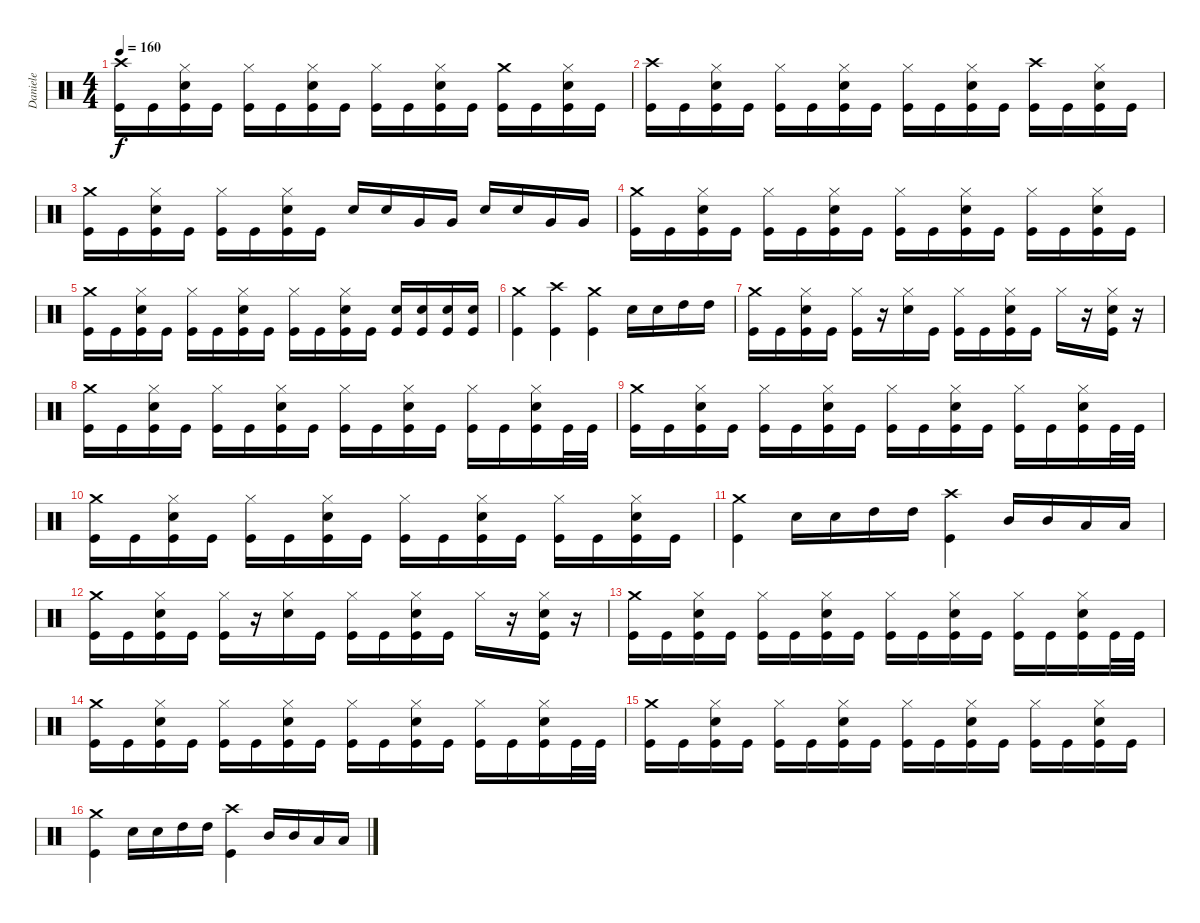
\track ("Daniele" "Daniele") {instrument percussion}
\staff {score}
\articulation defaults
\ts (4 4)
\tempo 160
\clef neutral
\ks c
("Kick (hit)" "Crash high (hit)").16{dy f} "Kick (hit)".16 ("Kick (hit)" "Electric Snare (hit)" "Hi-Hat (closed)").16 "Kick (hit)".16 ("Kick (hit)" "Hi-Hat (closed)").16 "Kick (hit)".16 ("Kick (hit)" "Electric Snare (hit)" "Hi-Hat (closed)").16 "Kick (hit)".16 ("Kick (hit)" "Hi-Hat (closed)").16 "Kick (hit)".16 ("Kick (hit)" "Electric Snare (hit)" "Hi-Hat (closed)").16 "Kick (hit)".16 ("Kick (hit)" "Crash medium (hit)").16 "Kick (hit)".16 ("Kick (hit)" "Electric Snare (hit)" "Hi-Hat (closed)").16 "Kick (hit)".16 |
("Kick (hit)" "Crash high (hit)").16 "Kick (hit)".16 ("Kick (hit)" "Electric Snare (hit)" "Hi-Hat (closed)").16 "Kick (hit)".16 ("Kick (hit)" "Hi-Hat (closed)").16 "Kick (hit)".16 ("Kick (hit)" "Electric Snare (hit)" "Hi-Hat (closed)").16 "Kick (hit)".16 ("Kick (hit)" "Hi-Hat (closed)").16 "Kick (hit)".16 ("Kick (hit)" "Electric Snare (hit)" "Hi-Hat (closed)").16 "Kick (hit)".16 ("Kick (hit)" "Crash high (hit)").16 "Kick (hit)".16 ("Kick (hit)" "Electric Snare (hit)" "Hi-Hat (closed)").16 "Kick (hit)".16 |
("Kick (hit)" "Crash medium (hit)").16 "Kick (hit)".16 ("Kick (hit)" "Electric Snare (hit)" "Hi-Hat (closed)").16 "Kick (hit)".16 ("Kick (hit)" "Hi-Hat (closed)").16 "Kick (hit)".16 ("Kick (hit)" "Electric Snare (hit)" "Hi-Hat (closed)").16 "Kick (hit)".16 "Electric Snare (hit)".16 "Electric Snare (hit)".16 "Very Low Tom (hit)".16 "Very Low Tom (hit)".16 "Electric Snare (hit)".16 "Electric Snare (hit)".16 "Very Low Tom (hit)".16 "Very Low Tom (hit)".16 |
("Kick (hit)" "Crash medium (hit)").16 "Kick (hit)".16 ("Kick (hit)" "Electric Snare (hit)" "Hi-Hat (closed)").16 "Kick (hit)".16 ("Kick (hit)" "Hi-Hat (closed)").16 "Kick (hit)".16 ("Kick (hit)" "Electric Snare (hit)" "Hi-Hat (closed)").16 "Kick (hit)".16 ("Kick (hit)" "Hi-Hat (closed)").16 "Kick (hit)".16 ("Kick (hit)" "Electric Snare (hit)" "Hi-Hat (closed)").16 "Kick (hit)".16 ("Kick (hit)" "Hi-Hat (closed)").16 "Kick (hit)".16 ("Kick (hit)" "Electric Snare (hit)" "Hi-Hat (closed)").16 "Kick (hit)".16 |
("Kick (hit)" "Crash medium (hit)").16 "Kick (hit)".16 ("Kick (hit)" "Electric Snare (hit)" "Hi-Hat (closed)").16 "Kick (hit)".16 ("Kick (hit)" "Hi-Hat (closed)").16 "Kick (hit)".16 ("Kick (hit)" "Electric Snare (hit)" "Hi-Hat (closed)").16 "Kick (hit)".16 ("Kick (hit)" "Hi-Hat (closed)").16 "Kick (hit)".16 ("Kick (hit)" "Electric Snare (hit)" "Hi-Hat (closed)").16 "Kick (hit)".16 ("Kick (hit)" "Electric Snare (hit)").16 ("Kick (hit)" "Electric Snare (hit)").16 ("Kick (hit)" "Electric Snare (hit)").16 ("Kick (hit)" "Electric Snare (hit)").16 |
("Kick (hit)" "Crash medium (hit)").4 ("Kick (hit)" "Crash high (hit)").4 ("Kick (hit)" "Crash medium (hit)").4 "Electric Snare (hit)".16 "Electric Snare (hit)".16 "High Tom (hit)".16 "High Tom (hit)".16 |
("Kick (hit)" "Crash medium (hit)").16 "Kick (hit)".16 ("Kick (hit)" "Electric Snare (hit)" "Hi-Hat (closed)").16 "Kick (hit)".16 ("Kick (hit)" "Hi-Hat (closed)").16 r.16 ("Electric Snare (hit)" "Hi-Hat (closed)").16 "Kick (hit)".16 ("Kick (hit)" "Hi-Hat (closed)").16 "Kick (hit)".16 ("Kick (hit)" "Electric Snare (hit)" "Hi-Hat (closed)").16 "Kick (hit)".16 "Hi-Hat (closed)".16 r.16 ("Kick (hit)" "Electric Snare (hit)" "Hi-Hat (closed)").16 r.16 |
("Kick (hit)" "Crash medium (hit)").16 "Kick (hit)".16 ("Kick (hit)" "Electric Snare (hit)" "Hi-Hat (closed)").16 "Kick (hit)".16 ("Kick (hit)" "Hi-Hat (closed)").16 "Kick (hit)".16 ("Kick (hit)" "Electric Snare (hit)" "Hi-Hat (closed)").16 "Kick (hit)".16 ("Kick (hit)" "Hi-Hat (closed)").16 "Kick (hit)".16 ("Kick (hit)" "Electric Snare (hit)" "Hi-Hat (closed)").16 "Kick (hit)".16 ("Kick (hit)" "Hi-Hat (closed)").16 "Kick (hit)".16 ("Kick (hit)" "Electric Snare (hit)" "Hi-Hat (closed)").16 "Kick (hit)".32 "Kick (hit)".32 |
("Kick (hit)" "Crash medium (hit)").16 "Kick (hit)".16 ("Kick (hit)" "Electric Snare (hit)" "Hi-Hat (closed)").16 "Kick (hit)".16 ("Kick (hit)" "Hi-Hat (closed)").16 "Kick (hit)".16 ("Kick (hit)" "Electric Snare (hit)" "Hi-Hat (closed)").16 "Kick (hit)".16 ("Kick (hit)" "Hi-Hat (closed)").16 "Kick (hit)".16 ("Kick (hit)" "Electric Snare (hit)" "Hi-Hat (closed)").16 "Kick (hit)".16 ("Kick (hit)" "Hi-Hat (closed)").16 "Kick (hit)".16 ("Kick (hit)" "Electric Snare (hit)" "Hi-Hat (closed)").16 "Kick (hit)".32 "Kick (hit)".32 |
("Kick (hit)" "Crash medium (hit)").16 "Kick (hit)".16 ("Kick (hit)" "Electric Snare (hit)" "Hi-Hat (closed)").16 "Kick (hit)".16 ("Kick (hit)" "Hi-Hat (closed)").16 "Kick (hit)".16 ("Kick (hit)" "Electric Snare (hit)" "Hi-Hat (closed)").16 "Kick (hit)".16 ("Kick (hit)" "Hi-Hat (closed)").16 "Kick (hit)".16 ("Kick (hit)" "Electric Snare (hit)" "Hi-Hat (closed)").16 "Kick (hit)".16 ("Kick (hit)" "Hi-Hat (closed)").16 "Kick (hit)".16 ("Kick (hit)" "Electric Snare (hit)" "Hi-Hat (closed)").16 "Kick (hit)".16 |
("Kick (hit)" "Crash medium (hit)").4 "Electric Snare (hit)".16 "Electric Snare (hit)".16 "High Tom (hit)".16 "High Tom (hit)".16 ("Kick (hit)" "Crash high (hit)").4 "Mid Tom (hit)".16 "Mid Tom (hit)".16 "Low Tom (hit)".16 "Low Tom (hit)".16 |
("Kick (hit)" "Crash medium (hit)").16 "Kick (hit)".16 ("Kick (hit)" "Electric Snare (hit)" "Hi-Hat (closed)").16 "Kick (hit)".16 ("Kick (hit)" "Hi-Hat (closed)").16 r.16 ("Electric Snare (hit)" "Hi-Hat (closed)").16 "Kick (hit)".16 ("Kick (hit)" "Hi-Hat (closed)").16 "Kick (hit)".16 ("Kick (hit)" "Electric Snare (hit)" "Hi-Hat (closed)").16 "Kick (hit)".16 "Hi-Hat (closed)".16 r.16 ("Kick (hit)" "Electric Snare (hit)" "Hi-Hat (closed)").16 r.16 |
("Kick (hit)" "Crash medium (hit)").16 "Kick (hit)".16 ("Kick (hit)" "Electric Snare (hit)" "Hi-Hat (closed)").16 "Kick (hit)".16 ("Kick (hit)" "Hi-Hat (closed)").16 "Kick (hit)".16 ("Kick (hit)" "Electric Snare (hit)" "Hi-Hat (closed)").16 "Kick (hit)".16 ("Kick (hit)" "Hi-Hat (closed)").16 "Kick (hit)".16 ("Kick (hit)" "Electric Snare (hit)" "Hi-Hat (closed)").16 "Kick (hit)".16 ("Kick (hit)" "Hi-Hat (closed)").16 "Kick (hit)".16 ("Kick (hit)" "Electric Snare (hit)" "Hi-Hat (closed)").16 "Kick (hit)".32 "Kick (hit)".32 |
("Kick (hit)" "Crash medium (hit)").16 "Kick (hit)".16 ("Kick (hit)" "Electric Snare (hit)" "Hi-Hat (closed)").16 "Kick (hit)".16 ("Kick (hit)" "Hi-Hat (closed)").16 "Kick (hit)".16 ("Kick (hit)" "Electric Snare (hit)" "Hi-Hat (closed)").16 "Kick (hit)".16 ("Kick (hit)" "Hi-Hat (closed)").16 "Kick (hit)".16 ("Kick (hit)" "Electric Snare (hit)" "Hi-Hat (closed)").16 "Kick (hit)".16 ("Kick (hit)" "Hi-Hat (closed)").16 "Kick (hit)".16 ("Kick (hit)" "Electric Snare (hit)" "Hi-Hat (closed)").16 "Kick (hit)".32 "Kick (hit)".32 |
("Kick (hit)" "Crash medium (hit)").16 "Kick (hit)".16 ("Kick (hit)" "Electric Snare (hit)" "Hi-Hat (closed)").16 "Kick (hit)".16 ("Kick (hit)" "Hi-Hat (closed)").16 "Kick (hit)".16 ("Kick (hit)" "Electric Snare (hit)" "Hi-Hat (closed)").16 "Kick (hit)".16 ("Kick (hit)" "Hi-Hat (closed)").16 "Kick (hit)".16 ("Kick (hit)" "Electric Snare (hit)" "Hi-Hat (closed)").16 "Kick (hit)".16 ("Kick (hit)" "Hi-Hat (closed)").16 "Kick (hit)".16 ("Kick (hit)" "Electric Snare (hit)" "Hi-Hat (closed)").16 "Kick (hit)".16 |
("Kick (hit)" "Crash medium (hit)").4 "Electric Snare (hit)".16 "Electric Snare (hit)".16 "High Tom (hit)".16 "High Tom (hit)".16 ("Kick (hit)" "Crash high (hit)").4 "Mid Tom (hit)".16 "Mid Tom (hit)".16 "Low Tom (hit)".16 "Low Tom (hit)".16
